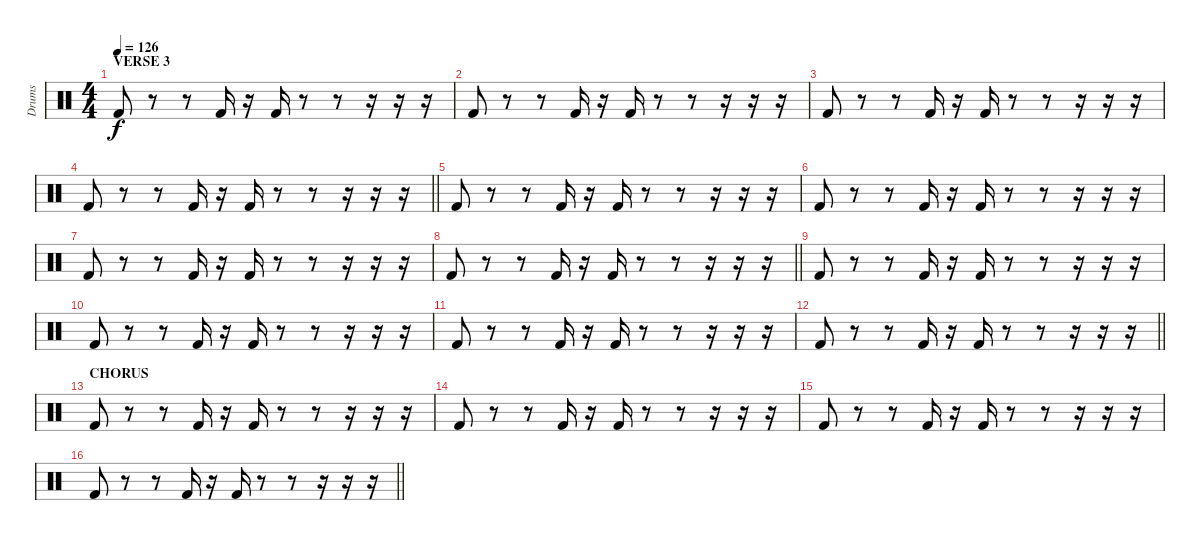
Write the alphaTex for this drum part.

\track ("Drums" "Drums") {instrument percussion}
\staff {score}
\articulation defaults
\ts (4 4)
\section ("" "VERSE 3")
\tempo 126
\clef neutral
\ks c "Kick (hit) 2".8{dy f}
r.8 r.8 "Kick (hit) 2".16 r.16 "Kick (hit) 2".16 r.8 r.8 r.16 r.16 r.16 |
"Kick (hit) 2".8 r.8 r.8 "Kick (hit) 2".16 r.16 "Kick (hit) 2".16 r.8 r.8 r.16 r.16 r.16 |
"Kick (hit) 2".8 r.8 r.8 "Kick (hit) 2".16 r.16 "Kick (hit) 2".16 r.8 r.8 r.16 r.16 r.16 |
\barLineRight lightlight "Kick (hit) 2".8
r.8 r.8 "Kick (hit) 2".16 r.16 "Kick (hit) 2".16 r.8 r.8 r.16 r.16 r.16 |
"Kick (hit) 2".8 r.8 r.8 "Kick (hit) 2".16 r.16 "Kick (hit) 2".16 r.8 r.8 r.16 r.16 r.16 |
"Kick (hit) 2".8 r.8 r.8 "Kick (hit) 2".16 r.16 "Kick (hit) 2".16 r.8 r.8 r.16 r.16 r.16 |
"Kick (hit) 2".8 r.8 r.8 "Kick (hit) 2".16 r.16 "Kick (hit) 2".16 r.8 r.8 r.16 r.16 r.16 |
\barLineRight lightlight "Kick (hit) 2".8
r.8 r.8 "Kick (hit) 2".16 r.16 "Kick (hit) 2".16 r.8 r.8 r.16 r.16 r.16 |
"Kick (hit) 2".8 r.8 r.8 "Kick (hit) 2".16 r.16 "Kick (hit) 2".16 r.8 r.8 r.16 r.16 r.16 |
"Kick (hit) 2".8 r.8 r.8 "Kick (hit) 2".16 r.16 "Kick (hit) 2".16 r.8 r.8 r.16 r.16 r.16 |
"Kick (hit) 2".8 r.8 r.8 "Kick (hit) 2".16 r.16 "Kick (hit) 2".16 r.8 r.8 r.16 r.16 r.16 |
\barLineRight lightlight "Kick (hit) 2".8
r.8 r.8 "Kick (hit) 2".16 r.16 "Kick (hit) 2".16 r.8 r.8 r.16 r.16 r.16 |
\section ("" "CHORUS")
"Kick (hit) 2".8 r.8 r.8 "Kick (hit) 2".16 r.16 "Kick (hit) 2".16 r.8 r.8 r.16 r.16 r.16 |
"Kick (hit) 2".8 r.8 r.8 "Kick (hit) 2".16 r.16 "Kick (hit) 2".16 r.8 r.8 r.16 r.16 r.16 |
"Kick (hit) 2".8 r.8 r.8 "Kick (hit) 2".16 r.16 "Kick (hit) 2".16 r.8 r.8 r.16 r.16 r.16 |
\barLineRight lightlight "Kick (hit) 2".8
r.8 r.8 "Kick (hit) 2".16 r.16 "Kick (hit) 2".16 r.8 r.8 r.16 r.16 r.16
